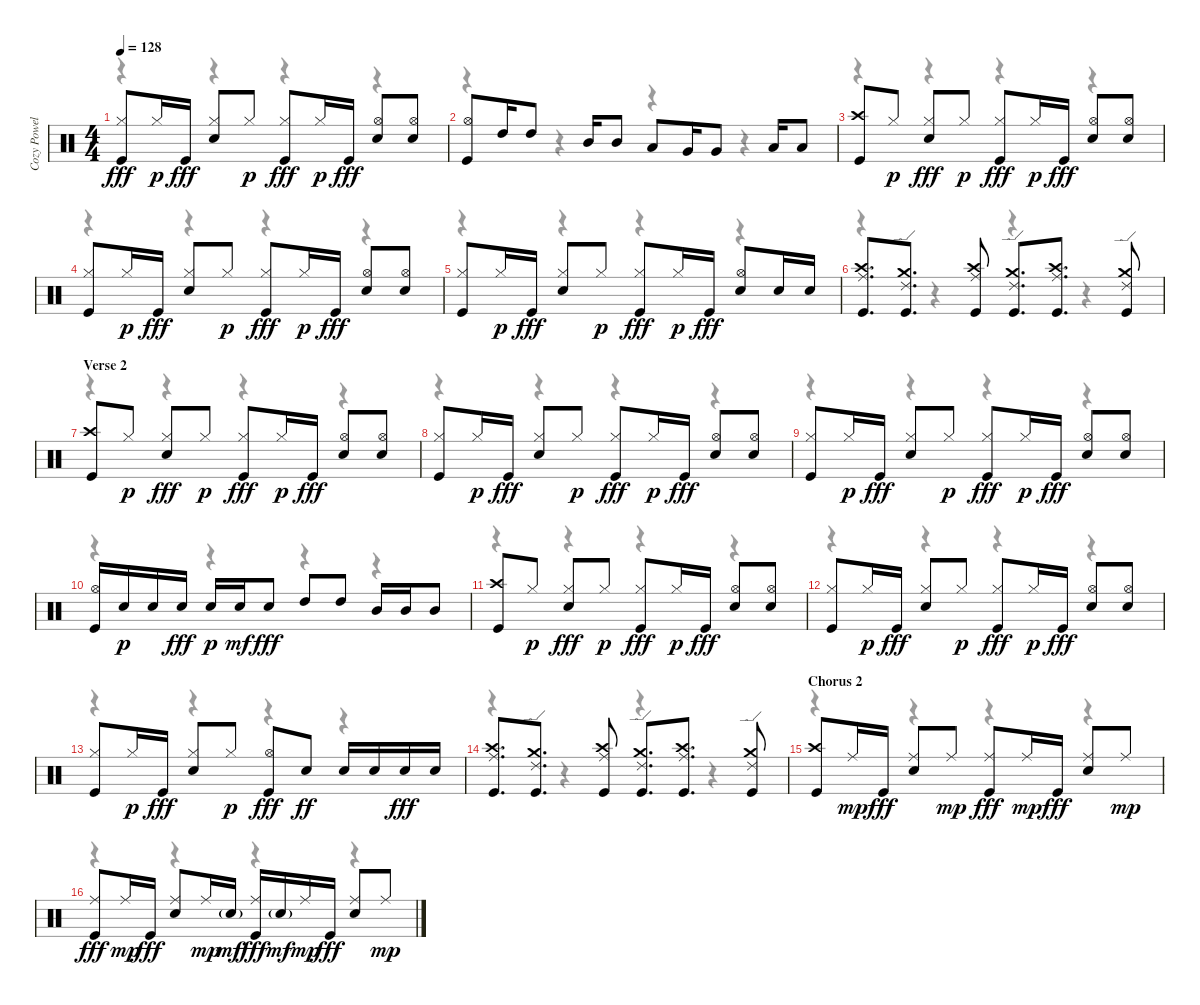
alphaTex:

\track ("Cozy Powell - Drums" "Cozy Powel") {instrument percussion}
\staff {score}
\articulation defaults
\voice
\ts (4 4)
\tempo 128
\clef neutral
\ks c
("Kick (hit)" "Hi-Hat (closed)").8{dy fff} "Hi-Hat (closed)".16{dy p} "Kick (hit)".16{dy fff} ("Snare (hit) 2" "Hi-Hat (closed)").8 "Hi-Hat (closed)".8{dy p} ("Kick (hit)" "Hi-Hat (closed)").8{dy fff} "Hi-Hat (closed)".16{dy p} "Kick (hit)".16{dy fff} ("Snare (hit) 2" "Hi-Hat (open)").8 ("Snare (hit) 2" "Hi-Hat (open)").8 |
("Kick (hit)" "Hi-Hat (open)").8 "High Tom (hit)".16 "High Tom (hit)".8 "Mid Tom (hit)".16 "Mid Tom (hit)".8 "Low Tom (hit)".8 "Very Low Tom (hit)".16 "Very Low Tom (hit)".8 "Low Floor Tom (hit)".16 "Low Floor Tom (hit)".8 |
("Kick (hit)" "Crash high (hit)").8 "Hi-Hat (closed)".8{dy p} ("Snare (hit) 2" "Hi-Hat (closed)").8{dy fff} "Hi-Hat (closed)".8{dy p} ("Kick (hit)" "Hi-Hat (closed)").8{dy fff} "Hi-Hat (closed)".16{dy p} "Kick (hit)".16{dy fff} ("Snare (hit) 2" "Hi-Hat (open)").8 ("Snare (hit) 2" "Hi-Hat (open)").8 |
("Kick (hit)" "Hi-Hat (closed)").8 "Hi-Hat (closed)".16{dy p} "Kick (hit)".16{dy fff} ("Snare (hit) 2" "Hi-Hat (closed)").8 "Hi-Hat (closed)".8{dy p} ("Kick (hit)" "Hi-Hat (closed)").8{dy fff} "Hi-Hat (closed)".16{dy p} "Kick (hit)".16{dy fff} ("Snare (hit) 2" "Hi-Hat (open)").8 ("Snare (hit) 2" "Hi-Hat (open)").8 |
("Kick (hit)" "Hi-Hat (closed)").8 "Hi-Hat (closed)".16{dy p} "Kick (hit)".16{dy fff} ("Snare (hit) 2" "Hi-Hat (closed)").8 "Hi-Hat (closed)".8{dy p} ("Kick (hit)" "Hi-Hat (closed)").8{dy fff} "Hi-Hat (closed)".16{dy p} "Kick (hit)".16{dy fff} ("Snare (hit) 2" "Hi-Hat (open)").8 "Snare (hit) 2".16 "Snare (hit) 2".16 |
("Kick (hit)" "Ride (middle)" "Crash high (hit)").8{d} ("Kick (hit)" "Ride (edge) 2" "Crash medium (hit)").8{d} ("Kick (hit)" "Ride (middle)" "Crash high (hit)").8 ("Kick (hit)" "Ride (edge) 2" "Crash medium (hit)").8{d} ("Kick (hit)" "Ride (middle)" "Crash high (hit)").8{d} ("Kick (hit)" "Ride (edge) 2" "Crash medium (hit)").8 |
\section ("" "Verse 2")
("Kick (hit)" "Crash high (hit)").8 "Hi-Hat (closed)".8{dy p} ("Snare (hit) 2" "Hi-Hat (closed)").8{dy fff} "Hi-Hat (closed)".8{dy p} ("Kick (hit)" "Hi-Hat (closed)").8{dy fff} "Hi-Hat (closed)".16{dy p} "Kick (hit)".16{dy fff} ("Snare (hit) 2" "Hi-Hat (open)").8 ("Snare (hit) 2" "Hi-Hat (open)").8 |
("Kick (hit)" "Hi-Hat (closed)").8 "Hi-Hat (closed)".16{dy p} "Kick (hit)".16{dy fff} ("Snare (hit) 2" "Hi-Hat (closed)").8 "Hi-Hat (closed)".8{dy p} ("Kick (hit)" "Hi-Hat (closed)").8{dy fff} "Hi-Hat (closed)".16{dy p} "Kick (hit)".16{dy fff} ("Snare (hit) 2" "Hi-Hat (open)").8 ("Snare (hit) 2" "Hi-Hat (open)").8 |
("Kick (hit)" "Hi-Hat (closed)").8 "Hi-Hat (closed)".16{dy p} "Kick (hit)".16{dy fff} ("Snare (hit) 2" "Hi-Hat (closed)").8 "Hi-Hat (closed)".8{dy p} ("Kick (hit)" "Hi-Hat (closed)").8{dy fff} "Hi-Hat (closed)".16{dy p} "Kick (hit)".16{dy fff} ("Snare (hit) 2" "Hi-Hat (open)").8 ("Snare (hit) 2" "Hi-Hat (open)").8 |
("Kick (hit)" "Hi-Hat (open)").16 "Snare (hit) 2".16{dy p} "Snare (hit) 2".16 "Snare (hit) 2".16{dy fff} "Snare (hit) 2".16{dy p} "Snare (hit) 2".16{dy mf} "Snare (hit) 2".8{dy fff} "High Tom (hit)".8 "High Tom (hit)".8 "Mid Tom (hit)".16 "Mid Tom (hit)".16 "Mid Tom (hit)".8 |
("Kick (hit)" "Crash high (hit)").8 "Hi-Hat (closed)".8{dy p} ("Snare (hit) 2" "Hi-Hat (closed)").8{dy fff} "Hi-Hat (closed)".8{dy p} ("Kick (hit)" "Hi-Hat (closed)").8{dy fff} "Hi-Hat (closed)".16{dy p} "Kick (hit)".16{dy fff} ("Snare (hit) 2" "Hi-Hat (open)").8 ("Snare (hit) 2" "Hi-Hat (open)").8 |
("Kick (hit)" "Hi-Hat (closed)").8 "Hi-Hat (closed)".16{dy p} "Kick (hit)".16{dy fff} ("Snare (hit) 2" "Hi-Hat (closed)").8 "Hi-Hat (closed)".8{dy p} ("Kick (hit)" "Hi-Hat (closed)").8{dy fff} "Hi-Hat (closed)".16{dy p} "Kick (hit)".16{dy fff} ("Snare (hit) 2" "Hi-Hat (open)").8 ("Snare (hit) 2" "Hi-Hat (open)").8 |
("Kick (hit)" "Hi-Hat (closed)").8 "Hi-Hat (closed)".16{dy p} "Kick (hit)".16{dy fff} ("Snare (hit) 2" "Hi-Hat (closed)").8 "Hi-Hat (closed)".8{dy p} ("Kick (hit)" "Hi-Hat (open)").8{dy fff} "Snare (hit) 2".8{dy ff} "Snare (hit) 2".16 "Snare (hit) 2".16 "Snare (hit) 2".16{dy fff} "Snare (hit) 2".16 |
("Kick (hit)" "Ride (middle)" "Crash high (hit)").8{d} ("Kick (hit)" "Ride (edge) 2" "Crash medium (hit)").8{d} ("Kick (hit)" "Ride (middle)" "Crash high (hit)").8 ("Kick (hit)" "Ride (edge) 2" "Crash medium (hit)").8{d} ("Kick (hit)" "Ride (middle)" "Crash high (hit)").8{d} ("Kick (hit)" "Ride (edge) 2" "Crash medium (hit)").8 |
\section ("" "Chorus 2")
("Kick (hit)" "Crash high (hit)").8 "Ride (middle)".16{dy mp} "Kick (hit)".16{dy fff} ("Snare (hit) 2" "Ride (middle)").8 "Ride (middle)".8{dy mp} ("Kick (hit)" "Ride (middle)").8{dy fff} "Ride (middle)".16{dy mp} "Kick (hit)".16{dy fff} ("Snare (hit) 2" "Ride (middle)").8 "Ride (middle)".8{dy mp} |
("Kick (hit)" "Ride (middle)").8{dy fff} "Ride (middle)".16{dy mp} "Kick (hit)".16{dy fff} ("Snare (hit) 2" "Ride (middle)").8 "Ride (middle)".16{dy mp} "Snare (hit) 2"{g}.16{dy mf} ("Kick (hit)" "Ride (middle)").16{dy fff} "Snare (hit) 2"{g}.16{dy mf} "Ride (middle)".16{dy mp} "Kick (hit)".16{dy fff} ("Snare (hit) 2" "Ride (middle)").8 "Ride (middle)".8{dy mp}
\voice
\clef neutral
\ottava regular
\simile none
\ks c
r.4{dy f} r.4 r.4 r.4 |
r.4 r.4 r.4 r.4 |
r.4 r.4 r.4 r.4 |
r.4 r.4 r.4 r.4 |
r.4 r.4 r.4 r.4 |
r.4 r.4 r.4 r.4 |
r.4 r.4 r.4 r.4 |
r.4 r.4 r.4 r.4 |
r.4 r.4 r.4 r.4 |
r.4 r.4 r.4 r.4 |
r.4 r.4 r.4 r.4 |
r.4 r.4 r.4 r.4 |
r.4 r.4 r.4 r.4 |
r.4 r.4 r.4 r.4 |
r.4 r.4 r.4 r.4 |
r.4 r.4 r.4 r.4
